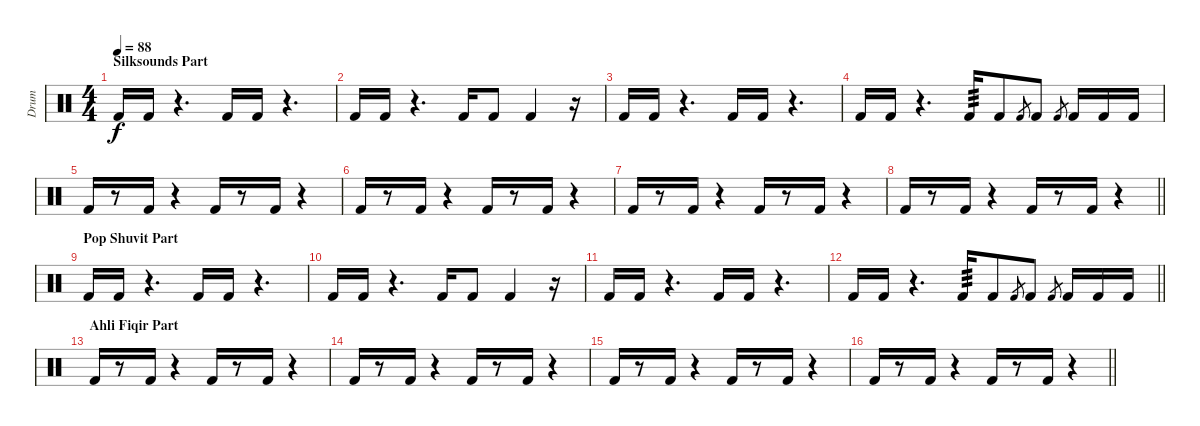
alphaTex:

\track ("Drum" "Drum") {instrument percussion}
\staff {score}
\articulation defaults
\ts (4 4)
\section ("" "Silksounds Part")
\tempo 88
\clef neutral
\ks c "Kick (hit) 2".16{dy f} "Kick (hit) 2".16
r.4{d} "Kick (hit) 2".16 "Kick (hit) 2".16 r.4{d} |
"Kick (hit) 2".16 "Kick (hit) 2".16 r.4{d} "Kick (hit) 2".16 "Kick (hit) 2".8 "Kick (hit) 2".4 r.16 |
"Kick (hit) 2".16 "Kick (hit) 2".16 r.4{d} "Kick (hit) 2".16 "Kick (hit) 2".16 r.4{d} |
"Kick (hit) 2".16 "Kick (hit) 2".16 r.4{d} "Kick (hit) 2".16{tp 3} "Kick (hit) 2".8 "Kick (hit) 2".8{gr} "Kick (hit) 2".8 "Kick (hit) 2".8{gr} "Kick (hit) 2".16 "Kick (hit) 2".16 "Kick (hit) 2".16 |
"Kick (hit) 2".16 r.8 "Kick (hit) 2".16 r.4 "Kick (hit) 2".16 r.8 "Kick (hit) 2".16 r.4 |
"Kick (hit) 2".16 r.8 "Kick (hit) 2".16 r.4 "Kick (hit) 2".16 r.8 "Kick (hit) 2".16 r.4 |
"Kick (hit) 2".16 r.8 "Kick (hit) 2".16 r.4 "Kick (hit) 2".16 r.8 "Kick (hit) 2".16 r.4 |
\barLineRight lightlight "Kick (hit) 2".16
r.8 "Kick (hit) 2".16 r.4 "Kick (hit) 2".16 r.8 "Kick (hit) 2".16 r.4 |
\section ("" "Pop Shuvit Part")
"Kick (hit) 2".16 "Kick (hit) 2".16 r.4{d} "Kick (hit) 2".16 "Kick (hit) 2".16 r.4{d} |
"Kick (hit) 2".16 "Kick (hit) 2".16 r.4{d} "Kick (hit) 2".16 "Kick (hit) 2".8 "Kick (hit) 2".4 r.16 |
"Kick (hit) 2".16 "Kick (hit) 2".16 r.4{d} "Kick (hit) 2".16 "Kick (hit) 2".16 r.4{d} |
\barLineRight lightlight "Kick (hit) 2".16 "Kick (hit) 2".16
r.4{d} "Kick (hit) 2".16{tp 3} "Kick (hit) 2".8 "Kick (hit) 2".8{gr} "Kick (hit) 2".8 "Kick (hit) 2".8{gr} "Kick (hit) 2".16 "Kick (hit) 2".16 "Kick (hit) 2".16 |
\section ("" "Ahli Fiqir Part")
"Kick (hit) 2".16 r.8 "Kick (hit) 2".16 r.4 "Kick (hit) 2".16 r.8 "Kick (hit) 2".16 r.4 |
"Kick (hit) 2".16 r.8 "Kick (hit) 2".16 r.4 "Kick (hit) 2".16 r.8 "Kick (hit) 2".16 r.4 |
"Kick (hit) 2".16 r.8 "Kick (hit) 2".16 r.4 "Kick (hit) 2".16 r.8 "Kick (hit) 2".16 r.4 |
\barLineRight lightlight "Kick (hit) 2".16
r.8 "Kick (hit) 2".16 r.4 "Kick (hit) 2".16 r.8 "Kick (hit) 2".16 r.4
